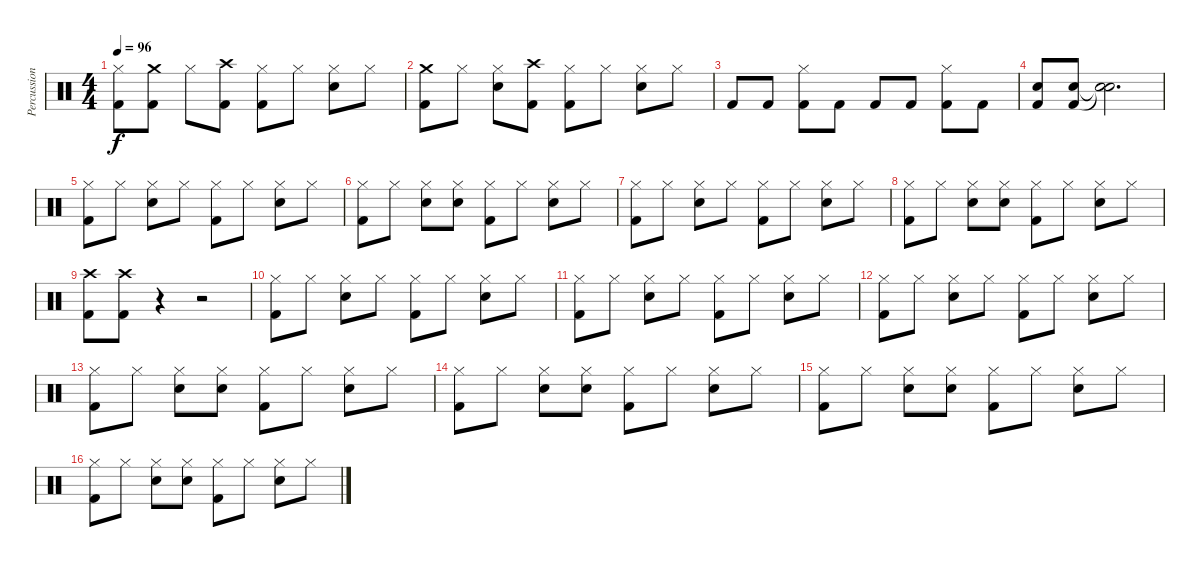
\track ("Percussion" "Percussion") {instrument percussion}
\staff {score}
\articulation defaults
\ts (4 4)
\tempo 96
\clef neutral
\ks c
("Kick (hit) 2" "Hi-Hat (closed)").8{dy f} ("Crash medium (hit)" "Kick (hit) 2").8 "Hi-Hat (closed)".8 ("Crash high (hit)" "Kick (hit) 2").8 ("Hi-Hat (closed)" "Kick (hit) 2").8 "Hi-Hat (closed)".8 ("Hi-Hat (closed)" "Snare (hit) 2").8 "Hi-Hat (closed)".8 |
("Crash medium (hit)" "Kick (hit) 2").8 "Hi-Hat (closed)".8 ("Hi-Hat (closed)" "Snare (hit) 2").8 ("Crash high (hit)" "Kick (hit) 2").8 ("Hi-Hat (closed)" "Kick (hit) 2").8 "Hi-Hat (closed)".8 ("Hi-Hat (closed)" "Snare (hit) 2").8 "Hi-Hat (closed)".8 |
"Kick (hit) 2".8 "Kick (hit) 2".8 ("Hi-Hat (closed)" "Kick (hit) 2").8 "Kick (hit) 2".8 "Kick (hit) 2".8 "Kick (hit) 2".8 ("Hi-Hat (closed)" "Kick (hit) 2").8 "Kick (hit) 2".8 |
("Snare (hit) 2" "Kick (hit) 2").8 ("Kick (hit) 2" "Snare (hit) 2").8 ("Snare (hit)"{t} "Snare (hit)"{t}).2{d} |
("Hi-Hat (closed)" "Kick (hit) 2").8 "Hi-Hat (closed)".8 ("Hi-Hat (closed)" "Snare (hit) 2").8 "Hi-Hat (closed)".8 ("Hi-Hat (closed)" "Kick (hit) 2").8 "Hi-Hat (closed)".8 ("Hi-Hat (closed)" "Snare (hit) 2").8 "Hi-Hat (closed)".8 |
("Hi-Hat (closed)" "Kick (hit) 2").8 "Hi-Hat (closed)".8 ("Hi-Hat (closed)" "Snare (hit) 2").8 ("Hi-Hat (closed)" "Snare (hit) 2").8 ("Hi-Hat (closed)" "Kick (hit) 2").8 "Hi-Hat (closed)".8 ("Hi-Hat (closed)" "Snare (hit) 2").8 "Hi-Hat (closed)".8 |
("Hi-Hat (closed)" "Kick (hit) 2").8 "Hi-Hat (closed)".8 ("Hi-Hat (closed)" "Snare (hit) 2").8 "Hi-Hat (closed)".8 ("Hi-Hat (closed)" "Kick (hit) 2").8 "Hi-Hat (closed)".8 ("Hi-Hat (closed)" "Snare (hit) 2").8 "Hi-Hat (closed)".8 |
("Hi-Hat (closed)" "Kick (hit) 2").8 "Hi-Hat (closed)".8 ("Hi-Hat (closed)" "Snare (hit) 2").8 ("Hi-Hat (closed)" "Snare (hit) 2").8 ("Hi-Hat (closed)" "Kick (hit) 2").8 "Hi-Hat (closed)".8 ("Hi-Hat (closed)" "Snare (hit) 2").8 "Hi-Hat (closed)".8 |
("Kick (hit) 2" "Crash high (hit)").8 ("Kick (hit) 2" "Crash high (hit)").8 r.4 r.2 |
("Hi-Hat (closed)" "Kick (hit) 2").8 "Hi-Hat (closed)".8 ("Hi-Hat (closed)" "Snare (hit) 2").8 "Hi-Hat (closed)".8 ("Hi-Hat (closed)" "Kick (hit) 2").8 "Hi-Hat (closed)".8 ("Hi-Hat (closed)" "Snare (hit) 2").8 "Hi-Hat (closed)".8 |
("Hi-Hat (closed)" "Kick (hit) 2").8 "Hi-Hat (closed)".8 ("Hi-Hat (closed)" "Snare (hit) 2").8 "Hi-Hat (closed)".8 ("Hi-Hat (closed)" "Kick (hit) 2").8 "Hi-Hat (closed)".8 ("Hi-Hat (closed)" "Snare (hit) 2").8 "Hi-Hat (closed)".8 |
("Hi-Hat (closed)" "Kick (hit) 2").8 "Hi-Hat (closed)".8 ("Hi-Hat (closed)" "Snare (hit) 2").8 "Hi-Hat (closed)".8 ("Hi-Hat (closed)" "Kick (hit) 2").8 "Hi-Hat (closed)".8 ("Hi-Hat (closed)" "Snare (hit) 2").8 "Hi-Hat (closed)".8 |
("Hi-Hat (closed)" "Kick (hit) 2").8 "Hi-Hat (closed)".8 ("Hi-Hat (closed)" "Snare (hit) 2").8 ("Hi-Hat (closed)" "Snare (hit) 2").8 ("Hi-Hat (closed)" "Kick (hit) 2").8 "Hi-Hat (closed)".8 ("Hi-Hat (closed)" "Snare (hit) 2").8 "Hi-Hat (closed)".8 |
("Hi-Hat (closed)" "Kick (hit) 2").8 "Hi-Hat (closed)".8 ("Hi-Hat (closed)" "Snare (hit) 2").8 ("Hi-Hat (closed)" "Snare (hit) 2").8 ("Hi-Hat (closed)" "Kick (hit) 2").8 "Hi-Hat (closed)".8 ("Hi-Hat (closed)" "Snare (hit) 2").8 "Hi-Hat (closed)".8 |
("Hi-Hat (closed)" "Kick (hit) 2").8 "Hi-Hat (closed)".8 ("Hi-Hat (closed)" "Snare (hit) 2").8 ("Hi-Hat (closed)" "Snare (hit) 2").8 ("Hi-Hat (closed)" "Kick (hit) 2").8 "Hi-Hat (closed)".8 ("Hi-Hat (closed)" "Snare (hit) 2").8 "Hi-Hat (closed)".8 |
("Hi-Hat (closed)" "Kick (hit) 2").8 "Hi-Hat (closed)".8 ("Hi-Hat (closed)" "Snare (hit) 2").8 ("Hi-Hat (closed)" "Snare (hit) 2").8 ("Hi-Hat (closed)" "Kick (hit) 2").8 "Hi-Hat (closed)".8 ("Hi-Hat (closed)" "Snare (hit) 2").8 "Hi-Hat (closed)".8
